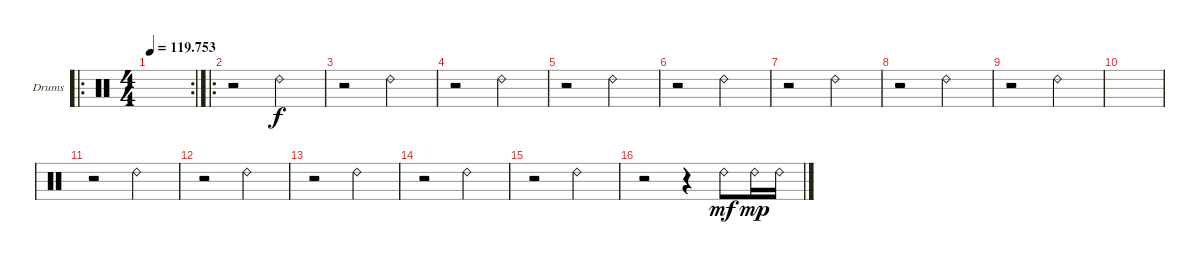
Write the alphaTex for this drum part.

\defaultSystemsLayout 4
\bracketExtendMode groupsimilarinstruments
\firstSystemTrackNameOrientation horizontal
\otherSystemsTrackNameOrientation horizontal
\track ("Drumkit" "Drums") {instrument percussion}
\staff {score}
\articulation defaults
\ro
\rc 2
\ts (4 4)
\scale
0.257507
\tempo
119.753
\accidentals auto
\clef neutral
\ottava regular
\simile none
\ks c
|
\ro
\scale
0.346224 r.2 "Ride (bell) 2".2 |
\scale
0.217577 r.2 "Ride (bell) 2".2 |
\scale
0.174224 r.2 "Ride (bell) 2".2 |
r.2 "Ride (bell) 2".2 |
r.2 "Ride (bell) 2".2 |
r.2 "Ride (bell) 2".2 |
r.2 "Ride (bell) 2".2 |
r.2 "Ride (bell) 2".2 |
|
r.2 "Ride (bell) 2".2 |
r.2 "Ride (bell) 2".2 |
r.2 "Ride (bell) 2".2 |
r.2 "Ride (bell) 2".2 |
r.2 "Ride (bell) 2".2 |
r.2 r.4 "Ride (bell) 2".8{dy mf} "Ride (bell) 2".16{dy mp} "Ride (bell) 2".16
